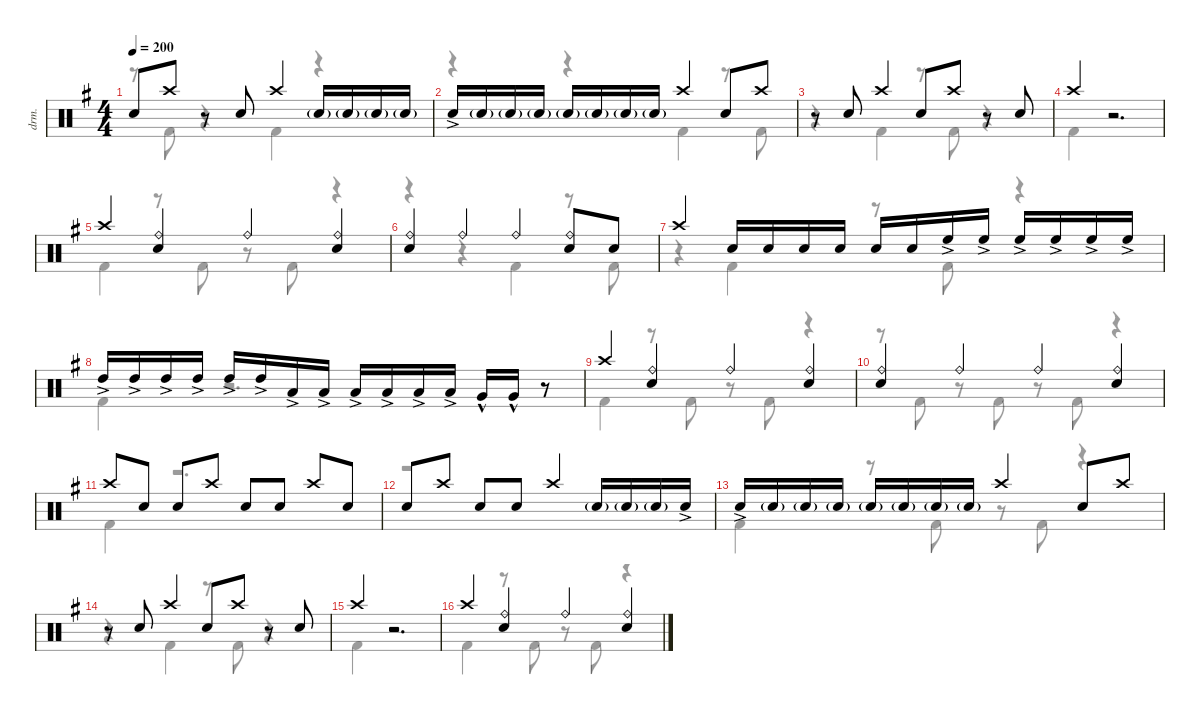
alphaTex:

\defaultSystemsLayout 4
\hideDynamics
\bracketExtendMode nobrackets
\track ("Drums" "drm.") {instrument percussion}
\staff {score}
\articulation defaults
\voice
\ts (4 4)
\tempo 200
\clef neutral
\ks g "Snare (hit) 2"{acc forcenatural}.8{dy mf} "Crash high (hit)"{acc forcenatural}.8
r.8 "Snare (hit) 2"{acc forcenatural}.8 "Crash high (hit)"{acc forcenatural}.4 "Snare (hit) 2"{g acc forcenatural}.16 "Snare (hit) 2"{g acc forcenatural}.16 "Snare (hit) 2"{g acc forcenatural}.16 "Snare (hit) 2"{g acc forcenatural}.16 |
"Snare (hit) 2"{ac acc forcenatural}.16 "Snare (hit) 2"{g acc forcenatural}.16 "Snare (hit) 2"{g acc forcenatural}.16 "Snare (hit) 2"{g acc forcenatural}.16 "Snare (hit) 2"{g acc forcenatural}.16 "Snare (hit) 2"{g acc forcenatural}.16 "Snare (hit) 2"{g acc forcenatural}.16 "Snare (hit) 2"{g acc forcenatural}.16 "Crash high (hit)"{acc forcenatural}.4 "Snare (hit) 2"{acc forcenatural}.8 "Crash high (hit)"{acc forcenatural}.8 |
r.8 "Snare (hit) 2"{acc forcenatural}.8 "Crash high (hit)"{acc forcenatural}.4 "Snare (hit) 2"{acc forcenatural}.8 "Crash high (hit)"{acc forcenatural}.8 r.8 "Snare (hit) 2"{acc forcenatural}.8 |
"Crash high (hit)"{acc forcenatural}.4 r.2{d} |
"Crash high (hit)"{acc forcenatural}.4 ("Ride (bell)"{acc forcenatural} "Snare (hit) 2"{acc forcenatural}).4 "Ride (bell)"{acc forcenatural}.4 ("Ride (bell)"{acc forcenatural} "Snare (hit) 2"{acc forcenatural}).4 |
("Snare (hit) 2"{acc forcenatural} "Ride (bell)"{acc forcenatural}).4 "Ride (bell)"{acc forcenatural}.4 "Ride (bell)"{acc forcenatural}.4 ("Ride (bell)"{acc forcenatural} "Snare (hit) 2"{acc forcenatural}).8 "Snare (hit) 2"{acc forcenatural}.8 |
"Crash high (hit)"{acc forcenatural}.4 "Snare (hit) 2"{acc forcenatural}.16 "Snare (hit) 2"{acc forcenatural}.16 "Snare (hit) 2"{acc forcenatural}.16 "Snare (hit) 2"{acc forcenatural}.16 "Snare (hit) 2"{acc forcenatural}.16 "Snare (hit) 2"{acc forcenatural}.16 "High Floor Tom (hit)"{ac acc forcenatural}.16 "High Floor Tom (hit)"{ac acc forcenatural}.16 "High Floor Tom (hit)"{ac acc forcenatural}.16 "High Floor Tom (hit)"{ac acc forcenatural}.16 "High Floor Tom (hit)"{ac acc forcenatural}.16 "High Floor Tom (hit)"{ac acc forcenatural}.16 |
"High Tom (hit)"{ac acc forcenatural}.16 "High Tom (hit)"{ac acc forcenatural}.16 "High Tom (hit)"{ac acc forcenatural}.16 "High Tom (hit)"{ac acc forcenatural}.16 "High Tom (hit)"{ac acc forcenatural}.16 "High Tom (hit)"{ac acc forcenatural}.16 "Low Tom (hit)"{ac acc forcenatural}.16 "Low Tom (hit)"{ac acc forcenatural}.16 "Low Tom (hit)"{ac acc forcenatural}.16 "Low Tom (hit)"{ac acc forcenatural}.16 "Low Tom (hit)"{ac acc forcenatural}.16 "Low Tom (hit)"{ac acc forcenatural}.16 "Very Low Tom (hit)"{hac acc forcenatural}.16 "Very Low Tom (hit)"{hac acc forcenatural}.16 r.8 |
"Crash high (hit)"{acc forcenatural}.4 ("Ride (bell)"{acc forcenatural} "Snare (hit) 2"{acc forcenatural}).4 "Ride (bell)"{acc forcenatural}.4 ("Ride (bell)"{acc forcenatural} "Snare (hit) 2"{acc forcenatural}).4 |
("Ride (bell)"{acc forcenatural} "Snare (hit) 2"{acc forcenatural}).4 "Ride (bell)"{acc forcenatural}.4 "Ride (bell)"{acc forcenatural}.4 ("Ride (bell)"{acc forcenatural} "Snare (hit) 2"{acc forcenatural}).4 |
"Crash high (hit)"{acc forcenatural}.8 "Snare (hit) 2"{acc forcenatural}.8 "Snare (hit) 2"{acc forcenatural}.8 "Crash high (hit)"{acc forcenatural}.8 "Snare (hit) 2"{acc forcenatural}.8 "Snare (hit) 2"{acc forcenatural}.8 "Crash high (hit)"{acc forcenatural}.8 "Snare (hit) 2"{acc forcenatural}.8 |
"Snare (hit) 2"{acc forcenatural}.8 "Crash high (hit)"{acc forcenatural}.8 "Snare (hit) 2"{acc forcenatural}.8 "Snare (hit) 2"{acc forcenatural}.8 "Crash high (hit)"{acc forcenatural}.4 "Snare (hit) 2"{g acc forcenatural}.16 "Snare (hit) 2"{g acc forcenatural}.16 "Snare (hit) 2"{g acc forcenatural}.16 "Snare (hit) 2"{ac acc forcenatural}.16 |
"Snare (hit) 2"{ac acc forcenatural}.16 "Snare (hit) 2"{g acc forcenatural}.16 "Snare (hit) 2"{g acc forcenatural}.16 "Snare (hit) 2"{g acc forcenatural}.16 "Snare (hit) 2"{g acc forcenatural}.16 "Snare (hit) 2"{g acc forcenatural}.16 "Snare (hit) 2"{g acc forcenatural}.16 "Snare (hit) 2"{g acc forcenatural}.16 "Crash high (hit)"{acc forcenatural}.4 "Snare (hit) 2"{acc forcenatural}.8 "Crash high (hit)"{acc forcenatural}.8 |
r.8 "Snare (hit) 2"{acc forcenatural}.8 "Crash high (hit)"{acc forcenatural}.4 "Snare (hit) 2"{acc forcenatural}.8 "Crash high (hit)"{acc forcenatural}.8 r.8 "Snare (hit) 2"{acc forcenatural}.8 |
"Crash high (hit)"{acc forcenatural}.4 r.2{d} |
"Crash high (hit)"{acc forcenatural}.4 ("Ride (bell)"{acc forcenatural} "Snare (hit) 2"{acc forcenatural}).4 "Ride (bell)"{acc forcenatural}.4 ("Ride (bell)"{acc forcenatural} "Snare (hit) 2"{acc forcenatural}).4
\voice
\clef neutral
\ottava regular
\simile none
\ks g
r.8{dy mf} "Kick (hit) 2"{acc forcenatural}.8 r.4 "Kick (hit) 2"{acc forcenatural}.4 r.4 |
r.4 r.4 "Kick (hit) 2"{acc forcenatural}.4 r.8 "Kick (hit) 2"{acc forcenatural}.8 |
r.4 "Kick (hit) 2"{acc forcenatural}.4 r.8 "Kick (hit) 2"{acc forcenatural}.8 r.4 |
"Kick (hit) 2"{acc forcenatural}.4 r.2{d} |
"Kick (hit) 2"{acc forcenatural}.4 r.8 "Kick (hit) 2"{acc forcenatural}.8 r.8 "Kick (hit) 2"{acc forcenatural}.8 r.4 |
r.4 r.4 "Kick (hit) 2"{acc forcenatural}.4 r.8 "Kick (hit) 2"{acc forcenatural}.8 |
r.4 "Kick (hit) 2"{acc forcenatural}.4 r.8 "Kick (hit) 2"{acc forcenatural}.8 r.4 |
"Kick (hit) 2"{acc forcenatural}.4 r.2{d} |
"Kick (hit) 2"{acc forcenatural}.4 r.8 "Kick (hit) 2"{acc forcenatural}.8 r.8 "Kick (hit) 2"{acc forcenatural}.8 r.4 |
r.8 "Kick (hit) 2"{acc forcenatural}.8 r.8 "Kick (hit) 2"{acc forcenatural}.8 r.8 "Kick (hit) 2"{acc forcenatural}.8 r.4 |
"Kick (hit) 2"{acc forcenatural}.4 r.2{d} |
r.1 |
"Kick (hit) 2"{acc forcenatural}.4 r.8 "Kick (hit) 2"{acc forcenatural}.8 r.8 "Kick (hit) 2"{acc forcenatural}.8 r.4 |
r.4 "Kick (hit) 2"{acc forcenatural}.4 r.8 "Kick (hit) 2"{acc forcenatural}.8 r.4 |
"Kick (hit) 2"{acc forcenatural}.4 r.2{d} |
"Kick (hit) 2"{acc forcenatural}.4 r.8 "Kick (hit) 2"{acc forcenatural}.8 r.8 "Kick (hit) 2"{acc forcenatural}.8 r.4
